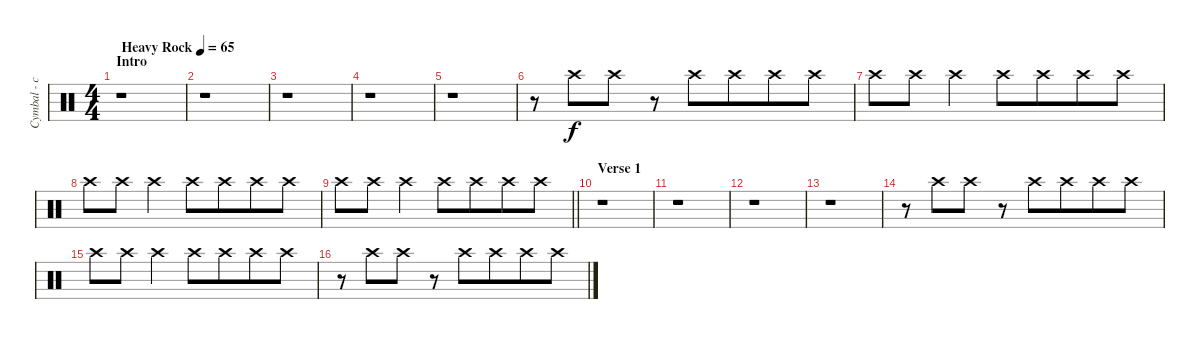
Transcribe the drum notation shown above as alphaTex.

\track ("Cymbal - crash - left" "Cymbal - c") {instrument percussion}
\staff {score}
\articulation defaults
\ts (4 4)
\section ("" "Intro")
\tempo (65 "Heavy Rock")
\clef neutral
\ks c
r.1{dy f volume 11 balance 4} |
r.1 |
r.1 |
r.1 |
r.1 |
r.8 "Crash high (hit)".8{beam merge} "Crash high (hit)".8 r.8 "Crash high (hit)".8 "Crash high (hit)".8{beam merge} "Crash high (hit)".8 "Crash high (hit)".8 |
"Crash high (hit)".8 "Crash high (hit)".8{beam merge} "Crash high (hit)".4 "Crash high (hit)".8 "Crash high (hit)".8{beam merge} "Crash high (hit)".8 "Crash high (hit)".8 |
"Crash high (hit)".8 "Crash high (hit)".8{beam merge} "Crash high (hit)".4 "Crash high (hit)".8 "Crash high (hit)".8{beam merge} "Crash high (hit)".8 "Crash high (hit)".8 |
\barLineRight lightlight "Crash high (hit)".8 "Crash high (hit)".8{beam merge} "Crash high (hit)".4 "Crash high (hit)".8 "Crash high (hit)".8{beam merge} "Crash high (hit)".8 "Crash high (hit)".8
|
\section ("" "Verse 1")
r.1 |
r.1 |
r.1 |
r.1 |
r.8 "Crash high (hit)".8{beam merge} "Crash high (hit)".8 r.8 "Crash high (hit)".8 "Crash high (hit)".8{beam merge} "Crash high (hit)".8 "Crash high (hit)".8 |
"Crash high (hit)".8 "Crash high (hit)".8{beam merge} "Crash high (hit)".4 "Crash high (hit)".8 "Crash high (hit)".8{beam merge} "Crash high (hit)".8 "Crash high (hit)".8 |
r.8 "Crash high (hit)".8{beam merge} "Crash high (hit)".8 r.8 "Crash high (hit)".8 "Crash high (hit)".8{beam merge} "Crash high (hit)".8 "Crash high (hit)".8
